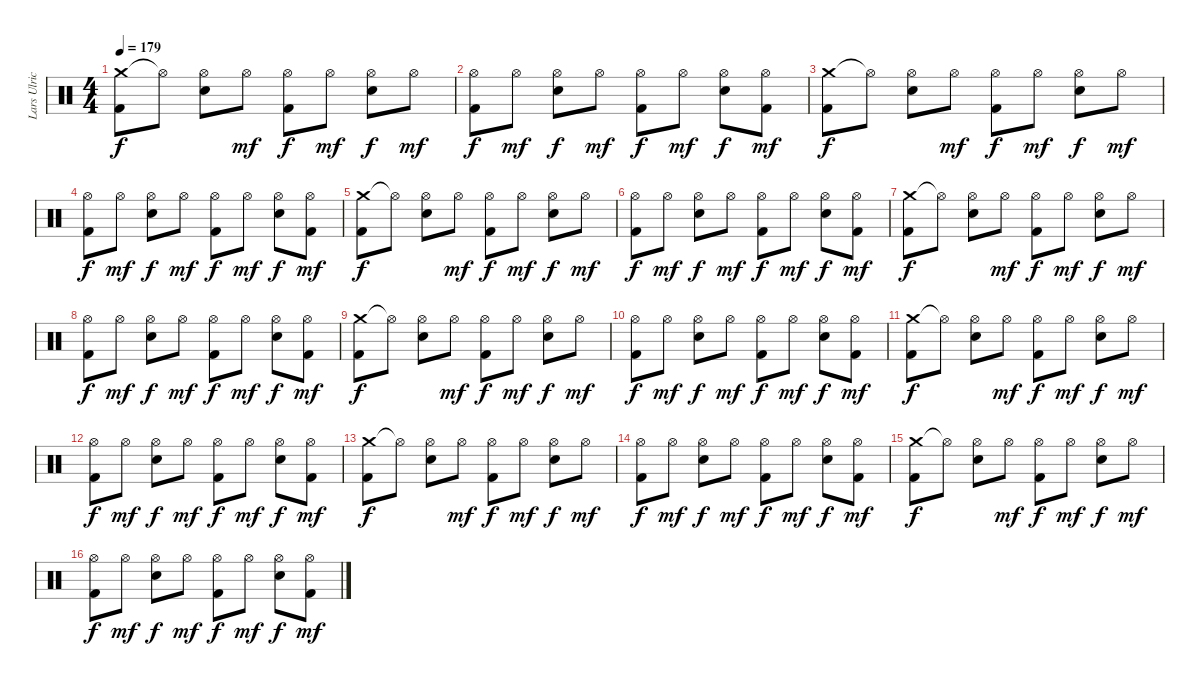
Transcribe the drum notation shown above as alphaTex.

\track ("Lars Ulrich" "Lars Ulric") {instrument percussion}
\staff {score}
\articulation defaults
\ts (4 4)
\tempo 179
\clef neutral
\ks c
("Crash medium (hit)" "Kick (hit) 2").8{dy f} "Hi-Hat (open)"{t}.8 ("Hi-Hat (open)" "Electric Snare (hit)").8 "Hi-Hat (open)".8{dy mf} ("Hi-Hat (open)" "Kick (hit) 2").8{dy f} "Hi-Hat (open)".8{dy mf} ("Hi-Hat (open)" "Electric Snare (hit)").8{dy f} "Hi-Hat (open)".8{dy mf} |
("Hi-Hat (open)" "Kick (hit) 2").8{dy f} "Hi-Hat (open)".8{dy mf} ("Hi-Hat (open)" "Electric Snare (hit)").8{dy f} "Hi-Hat (open)".8{dy mf} ("Hi-Hat (open)" "Kick (hit) 2").8{dy f} "Hi-Hat (open)".8{dy mf} ("Hi-Hat (open)" "Electric Snare (hit)").8{dy f} ("Hi-Hat (open)" "Kick (hit) 2").8{dy mf} |
("Crash medium (hit)" "Kick (hit) 2").8{dy f} "Hi-Hat (open)"{t}.8 ("Hi-Hat (open)" "Electric Snare (hit)").8 "Hi-Hat (open)".8{dy mf} ("Hi-Hat (open)" "Kick (hit) 2").8{dy f} "Hi-Hat (open)".8{dy mf} ("Hi-Hat (open)" "Electric Snare (hit)").8{dy f} "Hi-Hat (open)".8{dy mf} |
("Hi-Hat (open)" "Kick (hit) 2").8{dy f} "Hi-Hat (open)".8{dy mf} ("Hi-Hat (open)" "Electric Snare (hit)").8{dy f} "Hi-Hat (open)".8{dy mf} ("Hi-Hat (open)" "Kick (hit) 2").8{dy f} "Hi-Hat (open)".8{dy mf} ("Hi-Hat (open)" "Electric Snare (hit)").8{dy f} ("Hi-Hat (open)" "Kick (hit) 2").8{dy mf} |
("Crash medium (hit)" "Kick (hit) 2").8{dy f} "Hi-Hat (open)"{t}.8 ("Hi-Hat (open)" "Electric Snare (hit)").8 "Hi-Hat (open)".8{dy mf} ("Hi-Hat (open)" "Kick (hit) 2").8{dy f} "Hi-Hat (open)".8{dy mf} ("Hi-Hat (open)" "Electric Snare (hit)").8{dy f} "Hi-Hat (open)".8{dy mf} |
("Hi-Hat (open)" "Kick (hit) 2").8{dy f} "Hi-Hat (open)".8{dy mf} ("Hi-Hat (open)" "Electric Snare (hit)").8{dy f} "Hi-Hat (open)".8{dy mf} ("Hi-Hat (open)" "Kick (hit) 2").8{dy f} "Hi-Hat (open)".8{dy mf} ("Hi-Hat (open)" "Electric Snare (hit)").8{dy f} ("Hi-Hat (open)" "Kick (hit) 2").8{dy mf} |
("Crash medium (hit)" "Kick (hit) 2").8{dy f} "Hi-Hat (open)"{t}.8 ("Hi-Hat (open)" "Electric Snare (hit)").8 "Hi-Hat (open)".8{dy mf} ("Hi-Hat (open)" "Kick (hit) 2").8{dy f} "Hi-Hat (open)".8{dy mf} ("Hi-Hat (open)" "Electric Snare (hit)").8{dy f} "Hi-Hat (open)".8{dy mf} |
("Hi-Hat (open)" "Kick (hit) 2").8{dy f} "Hi-Hat (open)".8{dy mf} ("Hi-Hat (open)" "Electric Snare (hit)").8{dy f} "Hi-Hat (open)".8{dy mf} ("Hi-Hat (open)" "Kick (hit) 2").8{dy f} "Hi-Hat (open)".8{dy mf} ("Hi-Hat (open)" "Electric Snare (hit)").8{dy f} ("Hi-Hat (open)" "Kick (hit) 2").8{dy mf} |
("Crash medium (hit)" "Kick (hit) 2").8{dy f} "Hi-Hat (open)"{t}.8 ("Hi-Hat (open)" "Electric Snare (hit)").8 "Hi-Hat (open)".8{dy mf} ("Hi-Hat (open)" "Kick (hit) 2").8{dy f} "Hi-Hat (open)".8{dy mf} ("Hi-Hat (open)" "Electric Snare (hit)").8{dy f} "Hi-Hat (open)".8{dy mf} |
("Hi-Hat (open)" "Kick (hit) 2").8{dy f} "Hi-Hat (open)".8{dy mf} ("Hi-Hat (open)" "Electric Snare (hit)").8{dy f} "Hi-Hat (open)".8{dy mf} ("Hi-Hat (open)" "Kick (hit) 2").8{dy f} "Hi-Hat (open)".8{dy mf} ("Hi-Hat (open)" "Electric Snare (hit)").8{dy f} ("Hi-Hat (open)" "Kick (hit) 2").8{dy mf} |
("Crash medium (hit)" "Kick (hit) 2").8{dy f} "Hi-Hat (open)"{t}.8 ("Hi-Hat (open)" "Electric Snare (hit)").8 "Hi-Hat (open)".8{dy mf} ("Hi-Hat (open)" "Kick (hit) 2").8{dy f} "Hi-Hat (open)".8{dy mf} ("Hi-Hat (open)" "Electric Snare (hit)").8{dy f} "Hi-Hat (open)".8{dy mf} |
("Hi-Hat (open)" "Kick (hit) 2").8{dy f} "Hi-Hat (open)".8{dy mf} ("Hi-Hat (open)" "Electric Snare (hit)").8{dy f} "Hi-Hat (open)".8{dy mf} ("Hi-Hat (open)" "Kick (hit) 2").8{dy f} "Hi-Hat (open)".8{dy mf} ("Hi-Hat (open)" "Electric Snare (hit)").8{dy f} ("Hi-Hat (open)" "Kick (hit) 2").8{dy mf} |
("Crash medium (hit)" "Kick (hit) 2").8{dy f} "Hi-Hat (open)"{t}.8 ("Hi-Hat (open)" "Electric Snare (hit)").8 "Hi-Hat (open)".8{dy mf} ("Hi-Hat (open)" "Kick (hit) 2").8{dy f} "Hi-Hat (open)".8{dy mf} ("Hi-Hat (open)" "Electric Snare (hit)").8{dy f} "Hi-Hat (open)".8{dy mf} |
("Hi-Hat (open)" "Kick (hit) 2").8{dy f} "Hi-Hat (open)".8{dy mf} ("Hi-Hat (open)" "Electric Snare (hit)").8{dy f} "Hi-Hat (open)".8{dy mf} ("Hi-Hat (open)" "Kick (hit) 2").8{dy f} "Hi-Hat (open)".8{dy mf} ("Hi-Hat (open)" "Electric Snare (hit)").8{dy f} ("Hi-Hat (open)" "Kick (hit) 2").8{dy mf} |
("Crash medium (hit)" "Kick (hit) 2").8{dy f} "Hi-Hat (open)"{t}.8 ("Hi-Hat (open)" "Electric Snare (hit)").8 "Hi-Hat (open)".8{dy mf} ("Hi-Hat (open)" "Kick (hit) 2").8{dy f} "Hi-Hat (open)".8{dy mf} ("Hi-Hat (open)" "Electric Snare (hit)").8{dy f} "Hi-Hat (open)".8{dy mf} |
("Hi-Hat (open)" "Kick (hit) 2").8{dy f} "Hi-Hat (open)".8{dy mf} ("Hi-Hat (open)" "Electric Snare (hit)").8{dy f} "Hi-Hat (open)".8{dy mf} ("Hi-Hat (open)" "Kick (hit) 2").8{dy f} "Hi-Hat (open)".8{dy mf} ("Hi-Hat (open)" "Electric Snare (hit)").8{dy f} ("Hi-Hat (open)" "Kick (hit) 2").8{dy mf}
